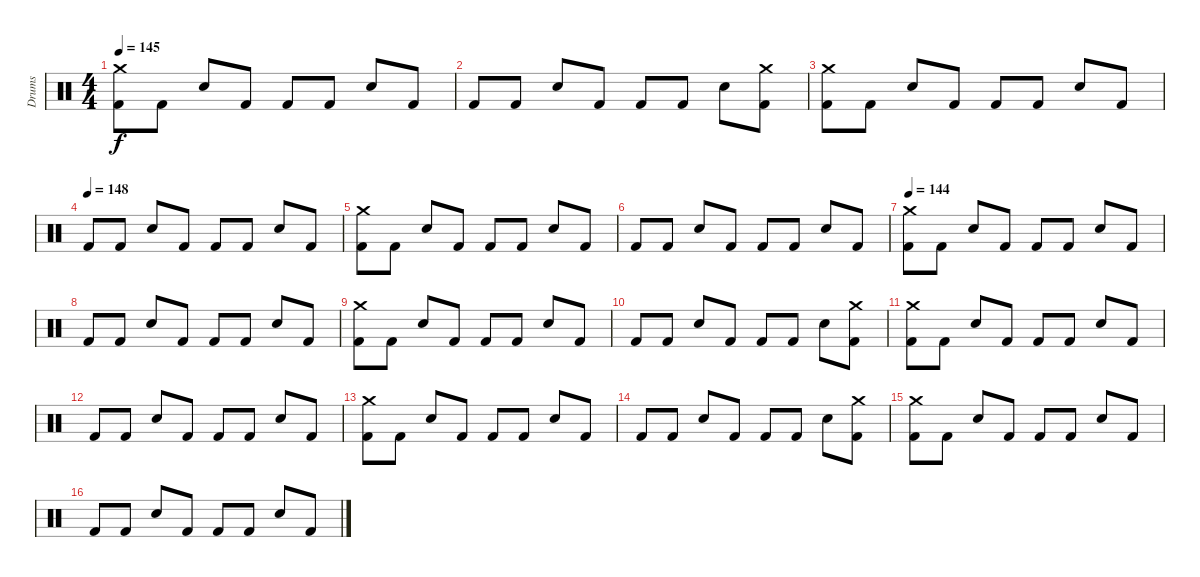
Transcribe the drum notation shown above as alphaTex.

\track ("Drums" "Drums") {instrument percussion}
\staff {score}
\articulation defaults
\ts (4 4)
\tempo 145
\clef neutral
\ks c
("Crash medium (hit)" "Kick (hit) 2").8{dy f} "Kick (hit) 2".8 "Snare (hit) 2".8 "Kick (hit) 2".8 "Kick (hit) 2".8 "Kick (hit) 2".8 "Snare (hit) 2".8 "Kick (hit) 2".8 |
"Kick (hit) 2".8 "Kick (hit) 2".8 "Snare (hit) 2".8 "Kick (hit) 2".8 "Kick (hit) 2".8 "Kick (hit) 2".8 "Snare (hit) 2".8 ("Crash medium (hit)" "Kick (hit) 2").8 |
("Crash medium (hit)" "Kick (hit) 2").8 "Kick (hit) 2".8 "Snare (hit) 2".8 "Kick (hit) 2".8 "Kick (hit) 2".8 "Kick (hit) 2".8 "Snare (hit) 2".8 "Kick (hit) 2".8 |
\tempo (148)
"Kick (hit) 2".8 "Kick (hit) 2".8 "Snare (hit) 2".8 "Kick (hit) 2".8 "Kick (hit) 2".8 "Kick (hit) 2".8 "Snare (hit) 2".8 "Kick (hit) 2".8 |
("Crash medium (hit)" "Kick (hit) 2").8 "Kick (hit) 2".8 "Snare (hit) 2".8 "Kick (hit) 2".8 "Kick (hit) 2".8 "Kick (hit) 2".8 "Snare (hit) 2".8 "Kick (hit) 2".8 |
"Kick (hit) 2".8 "Kick (hit) 2".8 "Snare (hit) 2".8 "Kick (hit) 2".8 "Kick (hit) 2".8 "Kick (hit) 2".8 "Snare (hit) 2".8 "Kick (hit) 2".8 |
\tempo 144
("Crash medium (hit)" "Kick (hit) 2").8 "Kick (hit) 2".8 "Snare (hit) 2".8 "Kick (hit) 2".8 "Kick (hit) 2".8 "Kick (hit) 2".8 "Snare (hit) 2".8 "Kick (hit) 2".8 |
"Kick (hit) 2".8 "Kick (hit) 2".8 "Snare (hit) 2".8 "Kick (hit) 2".8 "Kick (hit) 2".8 "Kick (hit) 2".8 "Snare (hit) 2".8 "Kick (hit) 2".8 |
("Crash medium (hit)" "Kick (hit) 2").8 "Kick (hit) 2".8 "Snare (hit) 2".8 "Kick (hit) 2".8 "Kick (hit) 2".8 "Kick (hit) 2".8 "Snare (hit) 2".8 "Kick (hit) 2".8 |
"Kick (hit) 2".8 "Kick (hit) 2".8 "Snare (hit) 2".8 "Kick (hit) 2".8 "Kick (hit) 2".8 "Kick (hit) 2".8 "Snare (hit) 2".8 ("Crash medium (hit)" "Kick (hit) 2").8 |
("Crash medium (hit)" "Kick (hit) 2").8 "Kick (hit) 2".8 "Snare (hit) 2".8 "Kick (hit) 2".8 "Kick (hit) 2".8 "Kick (hit) 2".8 "Snare (hit) 2".8 "Kick (hit) 2".8 |
"Kick (hit) 2".8 "Kick (hit) 2".8 "Snare (hit) 2".8 "Kick (hit) 2".8 "Kick (hit) 2".8 "Kick (hit) 2".8 "Snare (hit) 2".8 "Kick (hit) 2".8 |
("Crash medium (hit)" "Kick (hit) 2").8 "Kick (hit) 2".8 "Snare (hit) 2".8 "Kick (hit) 2".8 "Kick (hit) 2".8 "Kick (hit) 2".8 "Snare (hit) 2".8 "Kick (hit) 2".8 |
"Kick (hit) 2".8 "Kick (hit) 2".8 "Snare (hit) 2".8 "Kick (hit) 2".8 "Kick (hit) 2".8 "Kick (hit) 2".8 "Snare (hit) 2".8 ("Crash medium (hit)" "Kick (hit) 2").8 |
("Crash medium (hit)" "Kick (hit) 2").8 "Kick (hit) 2".8 "Snare (hit) 2".8 "Kick (hit) 2".8 "Kick (hit) 2".8 "Kick (hit) 2".8 "Snare (hit) 2".8 "Kick (hit) 2".8 |
"Kick (hit) 2".8 "Kick (hit) 2".8 "Snare (hit) 2".8 "Kick (hit) 2".8 "Kick (hit) 2".8 "Kick (hit) 2".8 "Snare (hit) 2".8 "Kick (hit) 2".8
